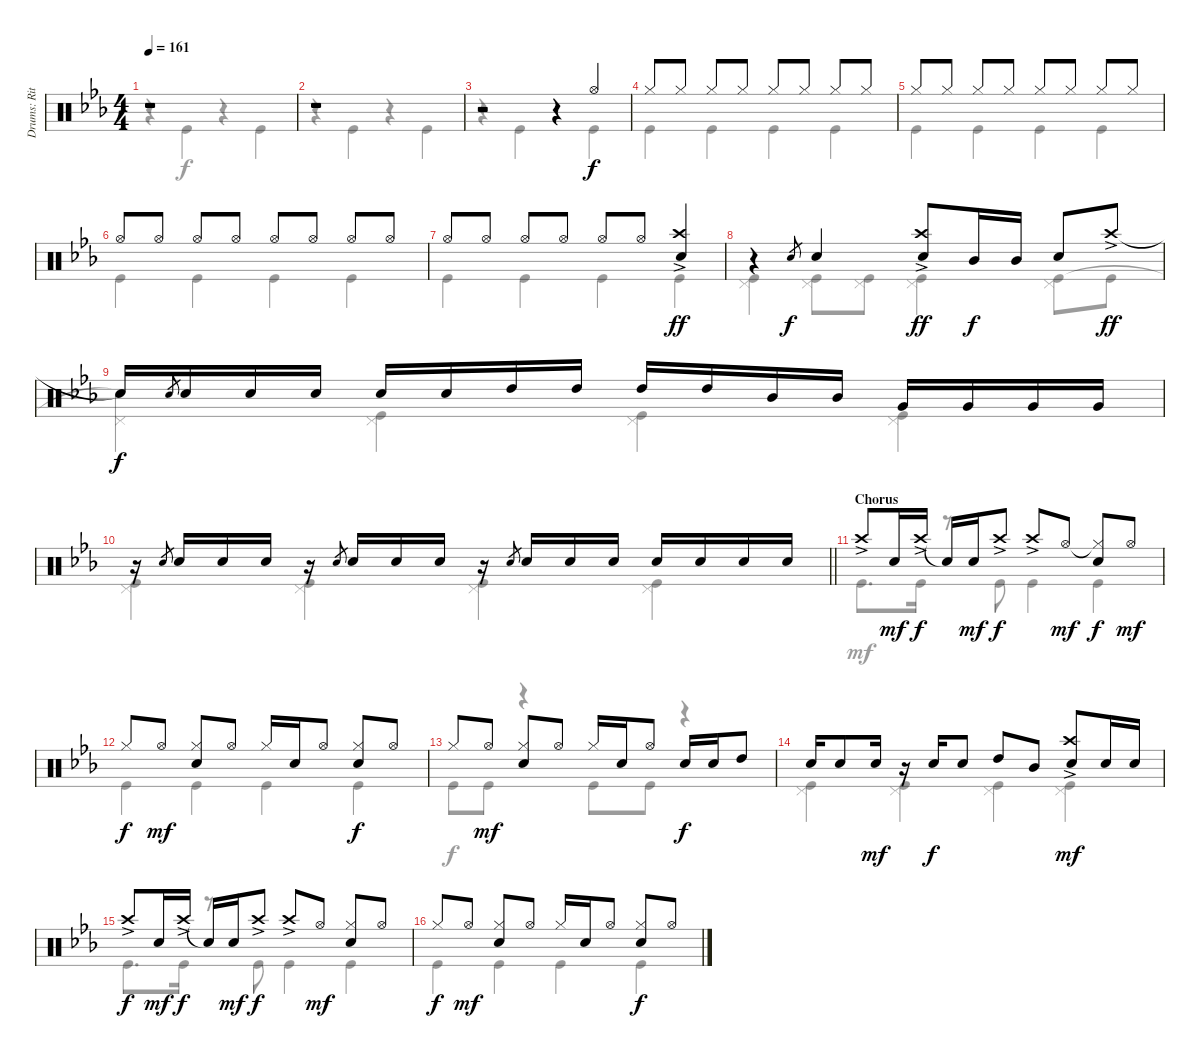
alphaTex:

\track ("Drums: Ritsu Tianaka" "Drums: Rit") {instrument percussion}
\staff {score}
\articulation defaults
\voice
\ts (4 4)
\tempo 161
\clef neutral
\ks eb
r.1{dy ff} |
r.1 |
r.2 r.4 "Hi-Hat (open)".4{dy f} |
"Hi-Hat (closed)".8 "Hi-Hat (closed)".8 "Hi-Hat (closed)".8 "Hi-Hat (closed)".8 "Hi-Hat (closed)".8 "Hi-Hat (closed)".8 "Hi-Hat (closed)".8 "Hi-Hat (closed)".8 |
"Hi-Hat (closed)".8 "Hi-Hat (closed)".8 "Hi-Hat (closed)".8 "Hi-Hat (closed)".8 "Hi-Hat (closed)".8 "Hi-Hat (closed)".8 "Hi-Hat (closed)".8 "Hi-Hat (closed)".8 |
"Hi-Hat (open)".8{volume 13} "Hi-Hat (open)".8{volume 15} "Hi-Hat (open)".8 "Hi-Hat (open)".8 "Hi-Hat (open)".8 "Hi-Hat (open)".8 "Hi-Hat (open)".8 "Hi-Hat (open)".8 |
"Hi-Hat (open)".8 "Hi-Hat (open)".8 "Hi-Hat (open)".8 "Hi-Hat (open)".8 "Hi-Hat (open)".8 "Hi-Hat (open)".8 ("Crash high (hit)"{ac} "Snare (hit) 2").4{dy ff} |
r.4 "Snare (hit) 2".8{gr dy f} "Snare (hit) 2".4 ("Crash high (hit)"{ac} "Snare (hit) 2").8{dy ff} "Mid Tom (hit)".16{dy f} "Mid Tom (hit)".16 "Snare (hit) 2".8 "Crash high (hit)"{ac}.8{dy ff} |
"Snare (hit)"{t}.16{dy f} "Snare (hit) 2".8{gr} "Snare (hit) 2".16 "Snare (hit) 2".16 "Snare (hit) 2".16 "Snare (hit) 2".16 "Snare (hit) 2".16 "High Tom (hit)".16 "High Tom (hit)".16 "High Tom (hit)".16 "High Tom (hit)".16 "Mid Tom (hit)".16 "Mid Tom (hit)".16 "Very Low Tom (hit)".16 "Very Low Tom (hit)".16 "Very Low Tom (hit)".16 "Very Low Tom (hit)".16 |
\barLineRight lightlight
r.16 "Snare (hit) 2".8{gr} "Snare (hit) 2".16 "Snare (hit) 2".16 "Snare (hit) 2".16 r.16 "Snare (hit) 2".8{gr} "Snare (hit) 2".16 "Snare (hit) 2".16 "Snare (hit) 2".16 r.16 "Snare (hit) 2".8{gr} "Snare (hit) 2".16 "Snare (hit) 2".16 "Snare (hit) 2".16 "Snare (hit) 2".16 "Snare (hit) 2".16 "Snare (hit) 2".16 "Snare (hit) 2".16 |
\section ("" "Chorus")
"Crash high (hit)"{ac}.8 "Snare (hit) 2".16{dy mf} "Crash high (hit)"{ac}.16{dy f} "Snare (hit)"{t}.16 "Snare (hit) 2".16{dy mf} "Crash high (hit)"{ac}.8{dy f} "Crash high (hit)"{ac}.8 "Hi-Hat (open)".8{dy mf} ("Hi-Hat (closed)"{t} "Snare (hit) 2").8{dy f} "Hi-Hat (open)".8{dy mf} |
"Hi-Hat (closed)".8{dy f} "Hi-Hat (open)".8{dy mf} ("Hi-Hat (closed)" "Snare (hit) 2").8 "Hi-Hat (open)".8 "Hi-Hat (closed)".16 "Snare (hit) 2".16 "Hi-Hat (open)".8 ("Hi-Hat (closed)" "Snare (hit) 2").8{dy f} "Hi-Hat (open)".8 |
"Hi-Hat (closed)".8 "Hi-Hat (open)".8{dy mf} ("Hi-Hat (closed)" "Snare (hit) 2").8 "Hi-Hat (open)".8 "Hi-Hat (closed)".16 "Snare (hit) 2".16 "Hi-Hat (open)".8 "Snare (hit) 2".16{dy f} "Snare (hit) 2".16 "High Tom (hit)".8 |
"Snare (hit) 2".16 "Snare (hit) 2".8 "Snare (hit) 2".16{dy mf} r.16 "Snare (hit) 2".16{dy f} "Snare (hit) 2".8 "High Tom (hit)".8 "Mid Tom (hit)".8 ("Crash high (hit)"{ac} "Snare (hit) 2").8{dy mf} "Snare (hit) 2".16 "Snare (hit) 2".16 |
"Crash high (hit)"{ac}.8{dy f} "Snare (hit) 2".16{dy mf} "Crash high (hit)"{ac}.16{dy f} "Snare (hit)"{t}.16 "Snare (hit) 2".16{dy mf} "Crash high (hit)"{ac}.8{dy f} "Crash high (hit)"{ac}.8 "Hi-Hat (open)".8{dy mf} ("Hi-Hat (closed)" "Snare (hit) 2").8 "Hi-Hat (open)".8 |
"Hi-Hat (closed)".8{dy f} "Hi-Hat (open)".8{dy mf} ("Hi-Hat (closed)" "Snare (hit) 2").8 "Hi-Hat (open)".8 "Hi-Hat (closed)".16 "Snare (hit) 2".16 "Hi-Hat (open)".8 ("Hi-Hat (closed)" "Snare (hit) 2").8{dy f} "Hi-Hat (open)".8
\voice
\clef neutral
\ottava regular
\simile none
\ks eb
r.4{dy f} "Kick (hit)".4 r.4 "Kick (hit)".4 |
r.4 "Kick (hit)".4 r.4 "Kick (hit)".4 |
r.4 "Kick (hit)".4 r.4 "Kick (hit)".4 |
"Kick (hit)".4 "Kick (hit)".4 "Kick (hit)".4 "Kick (hit)".4 |
"Kick (hit)".4 "Kick (hit)".4 "Kick (hit)".4 "Kick (hit)".4 |
"Kick (hit)".4 "Kick (hit)".4 "Kick (hit)".4 "Kick (hit)".4 |
"Kick (hit)".4 "Kick (hit)".4 "Kick (hit)".4 "Kick (hit)".4 |
("Pedal Hi-Hat (hit)" "Kick (hit)").4 ("Pedal Hi-Hat (hit)" "Kick (hit)").8 ("Pedal Hi-Hat (hit)" "Kick (hit)").8 ("Pedal Hi-Hat (hit)" "Kick (hit)").4 ("Pedal Hi-Hat (hit)" "Kick (hit)").8 "Kick (hit)".8 |
("Pedal Hi-Hat (hit)" "Snare (hit)"{t}).4 ("Pedal Hi-Hat (hit)" "Kick (hit)").4 ("Pedal Hi-Hat (hit)" "Kick (hit)").4 ("Pedal Hi-Hat (hit)" "Kick (hit)").4 |
\barLineRight lightlight
("Pedal Hi-Hat (hit)" "Kick (hit)").4 ("Pedal Hi-Hat (hit)" "Kick (hit)").4 ("Pedal Hi-Hat (hit)" "Kick (hit)").4 ("Pedal Hi-Hat (hit)" "Kick (hit)").4 |
"Kick (hit)".8{d dy mf} "Kick (hit)".16 r.8 "Kick (hit)".8 "Kick (hit)".4 "Kick (hit)".4 |
"Kick (hit)".4 "Kick (hit)".4 "Kick (hit)".4 "Kick (hit)".4 |
"Kick (hit)".8{dy f} "Kick (hit)".8{dy mf} r.4 "Kick (hit)".8 "Kick (hit)".8 r.4 |
("Pedal Hi-Hat (hit)" "Kick (hit)").4 ("Pedal Hi-Hat (hit)" "Kick (hit)").4 ("Pedal Hi-Hat (hit)" "Kick (hit)").4 ("Pedal Hi-Hat (hit)" "Kick (hit)").4 |
"Kick (hit)".8{d} "Kick (hit)".16 r.8 "Kick (hit)".8 "Kick (hit)".4 "Kick (hit)".4 |
"Kick (hit)".4 "Kick (hit)".4 "Kick (hit)".4 "Kick (hit)".4
